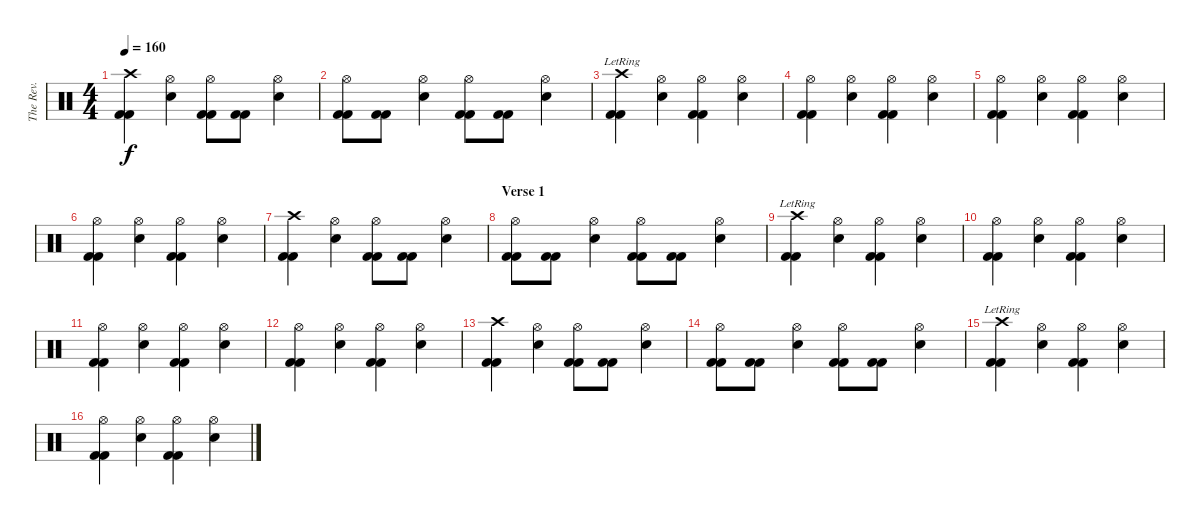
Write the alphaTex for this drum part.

\track ("The Rev." "The Rev.") {instrument percussion}
\staff {score}
\articulation defaults
\ts (4 4)
\tempo 160
\clef neutral
\ks c
("Crash high (hit)" "Kick (hit) 2" "Kick (hit) 2").4{dy f} ("Hi-Hat (open)" "Electric Snare (hit)").4 ("Hi-Hat (open)" "Kick (hit) 2" "Kick (hit) 2").8 ("Kick (hit) 2" "Kick (hit) 2").8 ("Hi-Hat (open)" "Electric Snare (hit)").4 |
("Hi-Hat (open)" "Kick (hit) 2" "Kick (hit) 2").8 ("Kick (hit) 2" "Kick (hit) 2").8 ("Hi-Hat (open)" "Electric Snare (hit)").4 ("Hi-Hat (open)" "Kick (hit) 2" "Kick (hit) 2").8 ("Kick (hit) 2" "Kick (hit) 2").8 ("Hi-Hat (open)" "Electric Snare (hit)").4 |
("Crash high (hit)" "Kick (hit) 2" "Kick (hit) 2"{lr}).4 ("Hi-Hat (open)" "Electric Snare (hit)").4 ("Hi-Hat (open)" "Kick (hit) 2" "Kick (hit) 2").4 ("Hi-Hat (open)" "Electric Snare (hit)").4 |
("Hi-Hat (open)" "Kick (hit) 2" "Kick (hit) 2").4 ("Hi-Hat (open)" "Electric Snare (hit)").4 ("Hi-Hat (open)" "Kick (hit) 2" "Kick (hit) 2").4 ("Hi-Hat (open)" "Electric Snare (hit)").4 |
("Hi-Hat (open)" "Kick (hit) 2" "Kick (hit) 2").4 ("Hi-Hat (open)" "Electric Snare (hit)").4 ("Hi-Hat (open)" "Kick (hit) 2" "Kick (hit) 2").4 ("Hi-Hat (open)" "Electric Snare (hit)").4 |
("Hi-Hat (open)" "Kick (hit) 2" "Kick (hit) 2").4 ("Hi-Hat (open)" "Electric Snare (hit)").4 ("Hi-Hat (open)" "Kick (hit) 2" "Kick (hit) 2").4 ("Hi-Hat (open)" "Electric Snare (hit)").4 |
("Crash high (hit)" "Kick (hit) 2" "Kick (hit) 2").4 ("Hi-Hat (open)" "Electric Snare (hit)").4 ("Hi-Hat (open)" "Kick (hit) 2" "Kick (hit) 2").8 ("Kick (hit) 2" "Kick (hit) 2").8 ("Hi-Hat (open)" "Electric Snare (hit)").4 |
\section ("" "Verse 1")
("Hi-Hat (open)" "Kick (hit) 2" "Kick (hit) 2").8 ("Kick (hit) 2" "Kick (hit) 2").8 ("Hi-Hat (open)" "Electric Snare (hit)").4 ("Hi-Hat (open)" "Kick (hit) 2" "Kick (hit) 2").8 ("Kick (hit) 2" "Kick (hit) 2").8 ("Hi-Hat (open)" "Electric Snare (hit)").4 |
("Crash high (hit)" "Kick (hit) 2" "Kick (hit) 2"{lr}).4 ("Hi-Hat (open)" "Electric Snare (hit)").4 ("Hi-Hat (open)" "Kick (hit) 2" "Kick (hit) 2").4 ("Hi-Hat (open)" "Electric Snare (hit)").4 |
("Hi-Hat (open)" "Kick (hit) 2" "Kick (hit) 2").4 ("Hi-Hat (open)" "Electric Snare (hit)").4 ("Hi-Hat (open)" "Kick (hit) 2" "Kick (hit) 2").4 ("Hi-Hat (open)" "Electric Snare (hit)").4 |
("Hi-Hat (open)" "Kick (hit) 2" "Kick (hit) 2").4 ("Hi-Hat (open)" "Electric Snare (hit)").4 ("Hi-Hat (open)" "Kick (hit) 2" "Kick (hit) 2").4 ("Hi-Hat (open)" "Electric Snare (hit)").4 |
("Hi-Hat (open)" "Kick (hit) 2" "Kick (hit) 2").4 ("Hi-Hat (open)" "Electric Snare (hit)").4 ("Hi-Hat (open)" "Kick (hit) 2" "Kick (hit) 2").4 ("Hi-Hat (open)" "Electric Snare (hit)").4 |
("Crash high (hit)" "Kick (hit) 2" "Kick (hit) 2").4 ("Hi-Hat (open)" "Electric Snare (hit)").4 ("Hi-Hat (open)" "Kick (hit) 2" "Kick (hit) 2").8 ("Kick (hit) 2" "Kick (hit) 2").8 ("Hi-Hat (open)" "Electric Snare (hit)").4 |
("Hi-Hat (open)" "Kick (hit) 2" "Kick (hit) 2").8 ("Kick (hit) 2" "Kick (hit) 2").8 ("Hi-Hat (open)" "Electric Snare (hit)").4 ("Hi-Hat (open)" "Kick (hit) 2" "Kick (hit) 2").8 ("Kick (hit) 2" "Kick (hit) 2").8 ("Hi-Hat (open)" "Electric Snare (hit)").4 |
("Crash high (hit)" "Kick (hit) 2" "Kick (hit) 2"{lr}).4 ("Hi-Hat (open)" "Electric Snare (hit)").4 ("Hi-Hat (open)" "Kick (hit) 2" "Kick (hit) 2").4 ("Hi-Hat (open)" "Electric Snare (hit)").4 |
("Hi-Hat (open)" "Kick (hit) 2" "Kick (hit) 2").4 ("Hi-Hat (open)" "Electric Snare (hit)").4 ("Hi-Hat (open)" "Kick (hit) 2" "Kick (hit) 2").4 ("Hi-Hat (open)" "Electric Snare (hit)").4
